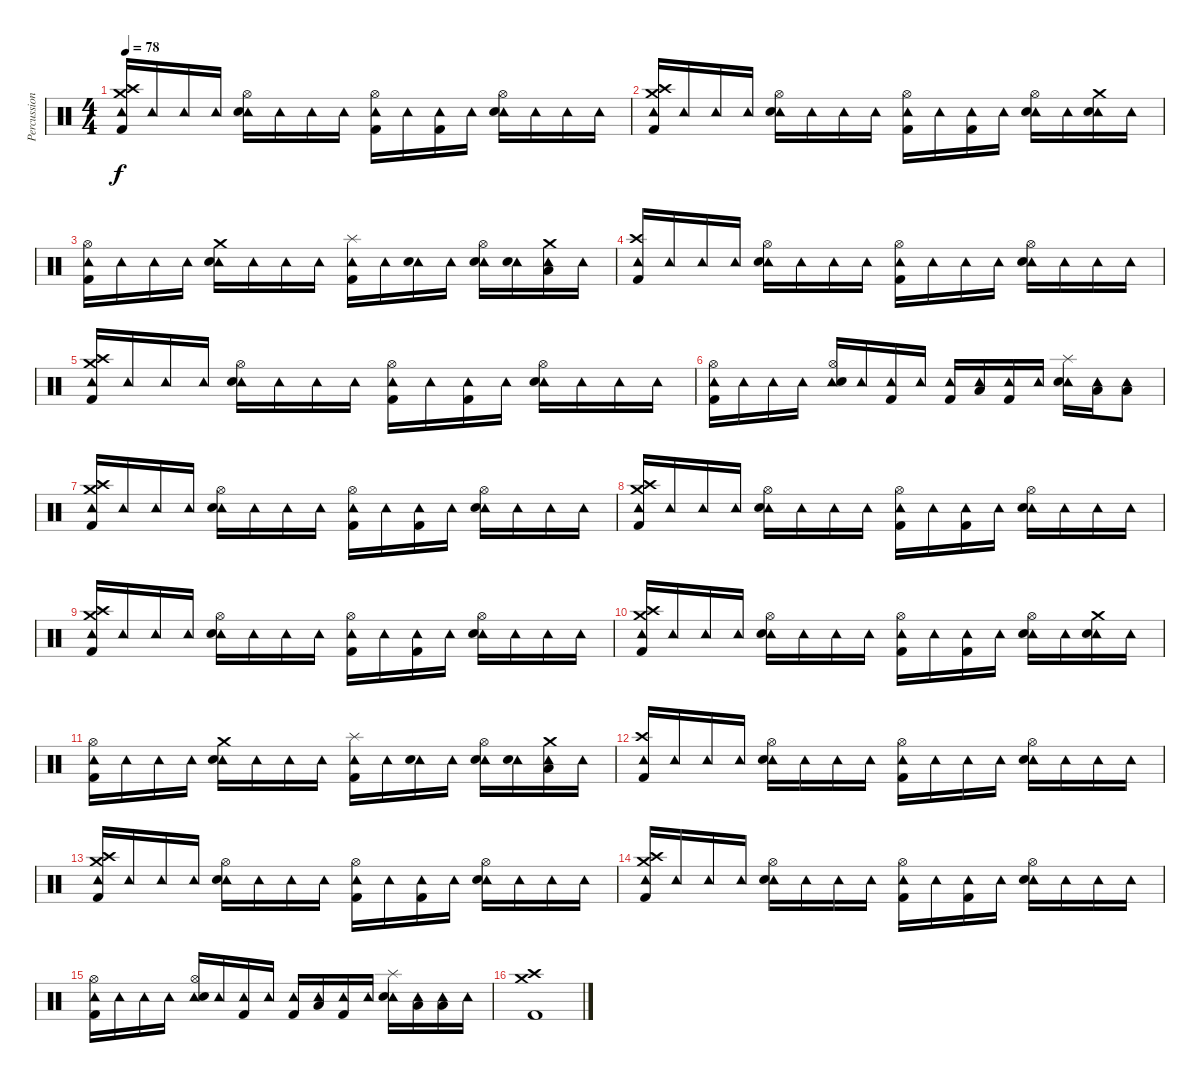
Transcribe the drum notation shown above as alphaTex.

\track ("Percussion" "Percussion") {instrument percussion}
\staff {score}
\articulation defaults
\ts (4 4)
\tempo 78
\clef neutral
\ks c
("Tambourine (hit)" "Crash high (hit)" "Crash medium (hit)" "Kick (hit) 2").16{dy f} "Tambourine (hit)".16 "Tambourine (hit)".16 "Tambourine (hit)".16 ("Tambourine (hit)" "Hi-Hat (open)" "Electric Snare (hit)").16 "Tambourine (hit)".16 "Tambourine (hit)".16 "Tambourine (hit)".16 ("Tambourine (hit)" "Hi-Hat (open)" "Kick (hit) 2").16 "Tambourine (hit)".16 ("Tambourine (hit)" "Kick (hit) 2").16 "Tambourine (hit)".16 ("Tambourine (hit)" "Hi-Hat (open)" "Electric Snare (hit)").16 "Tambourine (hit)".16 "Tambourine (hit)".16 "Tambourine (hit)".16 |
("Tambourine (hit)" "Crash high (hit)" "Crash medium (hit)" "Kick (hit) 2").16 "Tambourine (hit)".16 "Tambourine (hit)".16 "Tambourine (hit)".16 ("Tambourine (hit)" "Hi-Hat (open)" "Electric Snare (hit)").16 "Tambourine (hit)".16 "Tambourine (hit)".16 "Tambourine (hit)".16 ("Tambourine (hit)" "Hi-Hat (open)" "Kick (hit) 2").16 "Tambourine (hit)".16 ("Tambourine (hit)" "Kick (hit) 2").16 "Tambourine (hit)".16 ("Tambourine (hit)" "Hi-Hat (open)" "Electric Snare (hit)").16 "Tambourine (hit)".16 ("Tambourine (hit)" "Crash medium (hit)" "Electric Snare (hit)").16 "Tambourine (hit)".16 |
("Tambourine (hit)" "Hi-Hat (open)" "Kick (hit) 2").16 "Tambourine (hit)".16 "Tambourine (hit)".16 "Tambourine (hit)".16 ("Tambourine (hit)" "Crash medium (hit)" "Electric Snare (hit)").16 "Tambourine (hit)".16 "Tambourine (hit)".16 "Tambourine (hit)".16 ("Tambourine (hit)" "Splash (hit)" "Kick (hit) 2").16 "Tambourine (hit)".16 ("Tambourine (hit)" "Electric Snare (hit)").16 "Tambourine (hit)".16 ("Tambourine (hit)" "Hi-Hat (open)" "Electric Snare (hit)").16 ("Tambourine (hit)" "Electric Snare (hit)").16 ("Tambourine (hit)" "Crash medium (hit)" "Low Tom (hit)").16 "Tambourine (hit)".16 |
("Tambourine (hit)" "Crash high (hit)" "Kick (hit) 2").16 "Tambourine (hit)".16 "Tambourine (hit)".16 "Tambourine (hit)".16 ("Tambourine (hit)" "Hi-Hat (open)" "Electric Snare (hit)").16 "Tambourine (hit)".16 "Tambourine (hit)".16 "Tambourine (hit)".16 ("Tambourine (hit)" "Hi-Hat (open)" "Kick (hit) 2").16 "Tambourine (hit)".16 "Tambourine (hit)".16 "Tambourine (hit)".16 ("Tambourine (hit)" "Hi-Hat (open)" "Electric Snare (hit)").16 "Tambourine (hit)".16 "Tambourine (hit)".16 "Tambourine (hit)".16 |
("Tambourine (hit)" "Crash high (hit)" "Crash medium (hit)" "Kick (hit) 2").16 "Tambourine (hit)".16 "Tambourine (hit)".16 "Tambourine (hit)".16 ("Tambourine (hit)" "Hi-Hat (open)" "Electric Snare (hit)").16 "Tambourine (hit)".16 "Tambourine (hit)".16 "Tambourine (hit)".16 ("Tambourine (hit)" "Hi-Hat (open)" "Kick (hit) 2").16 "Tambourine (hit)".16 ("Tambourine (hit)" "Kick (hit) 2").16 "Tambourine (hit)".16 ("Tambourine (hit)" "Hi-Hat (open)" "Electric Snare (hit)").16 "Tambourine (hit)".16 "Tambourine (hit)".16 "Tambourine (hit)".16 |
("Tambourine (hit)" "Hi-Hat (open)" "Kick (hit) 2").16 "Tambourine (hit)".16 "Tambourine (hit)".16 "Tambourine (hit)".16 ("Tambourine (hit)" "Hi-Hat (open)" "Electric Snare (hit)").16 "Tambourine (hit)".16 ("Tambourine (hit)" "Kick (hit) 2").16 "Tambourine (hit)".16 ("Tambourine (hit)" "Kick (hit) 2").16 ("Tambourine (hit)" "Low Tom (hit)").16 ("Tambourine (hit)" "Kick (hit) 2").16 "Tambourine (hit)".16 ("Tambourine (hit)" "Splash (hit)" "Electric Snare (hit)").16 ("Tambourine (hit)" "Low Tom (hit)").16 ("Tambourine (hit)" "Low Tom (hit)").8 |
("Tambourine (hit)" "Crash high (hit)" "Crash medium (hit)" "Kick (hit) 2").16 "Tambourine (hit)".16 "Tambourine (hit)".16 "Tambourine (hit)".16 ("Tambourine (hit)" "Hi-Hat (open)" "Electric Snare (hit)").16 "Tambourine (hit)".16 "Tambourine (hit)".16 "Tambourine (hit)".16 ("Tambourine (hit)" "Hi-Hat (open)" "Kick (hit) 2").16 "Tambourine (hit)".16 ("Tambourine (hit)" "Kick (hit) 2").16 "Tambourine (hit)".16 ("Tambourine (hit)" "Hi-Hat (open)" "Electric Snare (hit)").16 "Tambourine (hit)".16 "Tambourine (hit)".16 "Tambourine (hit)".16 |
("Tambourine (hit)" "Crash high (hit)" "Crash medium (hit)" "Kick (hit) 2").16 "Tambourine (hit)".16 "Tambourine (hit)".16 "Tambourine (hit)".16 ("Tambourine (hit)" "Hi-Hat (open)" "Electric Snare (hit)").16 "Tambourine (hit)".16 "Tambourine (hit)".16 "Tambourine (hit)".16 ("Tambourine (hit)" "Hi-Hat (open)" "Kick (hit) 2").16 "Tambourine (hit)".16 ("Tambourine (hit)" "Kick (hit) 2").16 "Tambourine (hit)".16 ("Tambourine (hit)" "Hi-Hat (open)" "Electric Snare (hit)").16 "Tambourine (hit)".16 "Tambourine (hit)".16 "Tambourine (hit)".16 |
("Tambourine (hit)" "Crash high (hit)" "Crash medium (hit)" "Kick (hit) 2").16 "Tambourine (hit)".16 "Tambourine (hit)".16 "Tambourine (hit)".16 ("Tambourine (hit)" "Hi-Hat (open)" "Electric Snare (hit)").16 "Tambourine (hit)".16 "Tambourine (hit)".16 "Tambourine (hit)".16 ("Tambourine (hit)" "Hi-Hat (open)" "Kick (hit) 2").16 "Tambourine (hit)".16 ("Tambourine (hit)" "Kick (hit) 2").16 "Tambourine (hit)".16 ("Tambourine (hit)" "Hi-Hat (open)" "Electric Snare (hit)").16 "Tambourine (hit)".16 "Tambourine (hit)".16 "Tambourine (hit)".16 |
("Tambourine (hit)" "Crash high (hit)" "Crash medium (hit)" "Kick (hit) 2").16 "Tambourine (hit)".16 "Tambourine (hit)".16 "Tambourine (hit)".16 ("Tambourine (hit)" "Hi-Hat (open)" "Electric Snare (hit)").16 "Tambourine (hit)".16 "Tambourine (hit)".16 "Tambourine (hit)".16 ("Tambourine (hit)" "Hi-Hat (open)" "Kick (hit) 2").16 "Tambourine (hit)".16 ("Tambourine (hit)" "Kick (hit) 2").16 "Tambourine (hit)".16 ("Tambourine (hit)" "Hi-Hat (open)" "Electric Snare (hit)").16 "Tambourine (hit)".16 ("Tambourine (hit)" "Crash medium (hit)" "Electric Snare (hit)").16 "Tambourine (hit)".16 |
("Tambourine (hit)" "Hi-Hat (open)" "Kick (hit) 2").16 "Tambourine (hit)".16 "Tambourine (hit)".16 "Tambourine (hit)".16 ("Tambourine (hit)" "Crash medium (hit)" "Electric Snare (hit)").16 "Tambourine (hit)".16 "Tambourine (hit)".16 "Tambourine (hit)".16 ("Tambourine (hit)" "Splash (hit)" "Kick (hit) 2").16 "Tambourine (hit)".16 ("Tambourine (hit)" "Electric Snare (hit)").16 "Tambourine (hit)".16 ("Tambourine (hit)" "Hi-Hat (open)" "Electric Snare (hit)").16 ("Tambourine (hit)" "Electric Snare (hit)").16 ("Tambourine (hit)" "Crash medium (hit)" "Low Tom (hit)").16 "Tambourine (hit)".16 |
("Tambourine (hit)" "Crash high (hit)" "Kick (hit) 2").16 "Tambourine (hit)".16 "Tambourine (hit)".16 "Tambourine (hit)".16 ("Tambourine (hit)" "Hi-Hat (open)" "Electric Snare (hit)").16 "Tambourine (hit)".16 "Tambourine (hit)".16 "Tambourine (hit)".16 ("Tambourine (hit)" "Hi-Hat (open)" "Kick (hit) 2").16 "Tambourine (hit)".16 "Tambourine (hit)".16 "Tambourine (hit)".16 ("Tambourine (hit)" "Hi-Hat (open)" "Electric Snare (hit)").16 "Tambourine (hit)".16 "Tambourine (hit)".16 "Tambourine (hit)".16 |
("Tambourine (hit)" "Crash high (hit)" "Crash medium (hit)" "Kick (hit) 2").16 "Tambourine (hit)".16 "Tambourine (hit)".16 "Tambourine (hit)".16 ("Tambourine (hit)" "Hi-Hat (open)" "Electric Snare (hit)").16 "Tambourine (hit)".16 "Tambourine (hit)".16 "Tambourine (hit)".16 ("Tambourine (hit)" "Hi-Hat (open)" "Kick (hit) 2").16 "Tambourine (hit)".16 ("Tambourine (hit)" "Kick (hit) 2").16 "Tambourine (hit)".16 ("Tambourine (hit)" "Hi-Hat (open)" "Electric Snare (hit)").16 "Tambourine (hit)".16 "Tambourine (hit)".16 "Tambourine (hit)".16 |
("Tambourine (hit)" "Crash high (hit)" "Crash medium (hit)" "Kick (hit) 2").16 "Tambourine (hit)".16 "Tambourine (hit)".16 "Tambourine (hit)".16 ("Tambourine (hit)" "Hi-Hat (open)" "Electric Snare (hit)").16 "Tambourine (hit)".16 "Tambourine (hit)".16 "Tambourine (hit)".16 ("Tambourine (hit)" "Hi-Hat (open)" "Kick (hit) 2").16 "Tambourine (hit)".16 ("Tambourine (hit)" "Kick (hit) 2").16 "Tambourine (hit)".16 ("Tambourine (hit)" "Hi-Hat (open)" "Electric Snare (hit)").16 "Tambourine (hit)".16 "Tambourine (hit)".16 "Tambourine (hit)".16 |
("Tambourine (hit)" "Hi-Hat (open)" "Kick (hit) 2").16 "Tambourine (hit)".16 "Tambourine (hit)".16 "Tambourine (hit)".16 ("Tambourine (hit)" "Hi-Hat (open)" "Electric Snare (hit)").16 "Tambourine (hit)".16 ("Tambourine (hit)" "Kick (hit) 2").16 "Tambourine (hit)".16 ("Tambourine (hit)" "Kick (hit) 2").16 ("Tambourine (hit)" "Low Tom (hit)").16 ("Tambourine (hit)" "Kick (hit) 2").16 "Tambourine (hit)".16 ("Tambourine (hit)" "Splash (hit)" "Electric Snare (hit)").16 ("Tambourine (hit)" "Low Tom (hit)").16 ("Tambourine (hit)" "Low Tom (hit)").16 "Tambourine (hit)".16 |
("Crash high (hit)" "Crash medium (hit)" "Kick (hit) 2").1
